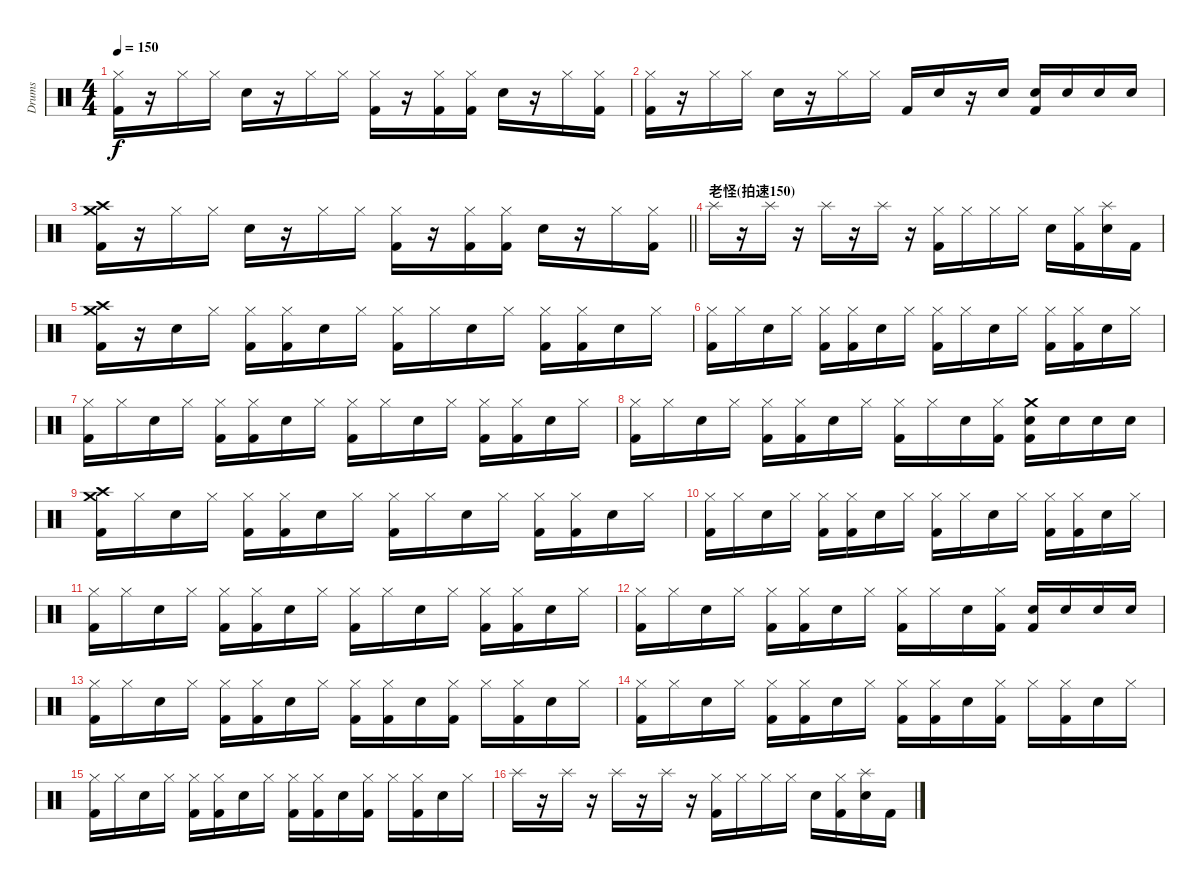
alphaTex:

\track ("Drums" "Drums") {instrument percussion}
\staff {score}
\articulation defaults
\ts (4 4)
\tempo 150
\clef neutral
\ks c
("Hi-Hat (closed)" "Kick (hit) 2").16{dy f} r.16 "Hi-Hat (closed)".16 "Hi-Hat (closed)".16 "Snare (hit) 2".16 r.16 "Hi-Hat (closed)".16 "Hi-Hat (closed)".16 ("Hi-Hat (closed)" "Kick (hit) 2").16 r.16 ("Hi-Hat (closed)" "Kick (hit) 2").16 ("Hi-Hat (closed)" "Kick (hit) 2").16 "Snare (hit) 2".16 r.16 "Hi-Hat (closed)".16 ("Hi-Hat (closed)" "Kick (hit) 2").16 |
("Hi-Hat (closed)" "Kick (hit) 2").16{volume 0} r.16 "Hi-Hat (closed)".16 "Hi-Hat (closed)".16 "Snare (hit) 2".16 r.16 "Hi-Hat (closed)".16 "Hi-Hat (closed)".16 "Kick (hit) 2".16 "Snare (hit) 2".16 r.16 "Snare (hit) 2".16 ("Snare (hit) 2" "Kick (hit) 2").16 "Snare (hit) 2".16 "Snare (hit) 2".16 "Snare (hit) 2".16 |
\barLineRight lightlight
("Crash medium (hit)" "Crash high (hit)" "Kick (hit) 2").16 r.16 "Hi-Hat (closed)".16 "Hi-Hat (closed)".16 "Snare (hit) 2".16 r.16 "Hi-Hat (closed)".16 "Hi-Hat (closed)".16 ("Hi-Hat (closed)" "Kick (hit) 2").16 r.16 ("Hi-Hat (closed)" "Kick (hit) 2").16 ("Hi-Hat (closed)" "Kick (hit) 2").16 "Snare (hit) 2".16 r.16 "Hi-Hat (closed)".16 ("Hi-Hat (closed)" "Kick (hit) 2").16 |
\section ("" "老怪(拍速150)")
"Splash (hit)".16{volume 13} r.16 "Splash (hit)".16 r.16 "Splash (hit)".16 r.16 "Splash (hit)".16 r.16 ("Hi-Hat (closed)" "Kick (hit) 2").16 "Hi-Hat (closed)".16 "Hi-Hat (closed)".16 "Hi-Hat (closed)".16 "Snare (hit) 2".16 ("Hi-Hat (closed)" "Kick (hit) 2").16 ("Splash (hit)" "Snare (hit) 2").16 "Kick (hit) 2".16 |
("Crash medium (hit)" "Crash high (hit)" "Kick (hit) 2").16 r.16 "Snare (hit) 2".16 "Hi-Hat (closed)".16 ("Hi-Hat (closed)" "Kick (hit) 2").16 ("Hi-Hat (closed)" "Kick (hit) 2").16 "Snare (hit) 2".16 "Hi-Hat (closed)".16 ("Hi-Hat (closed)" "Kick (hit) 2").16 "Hi-Hat (closed)".16 "Snare (hit) 2".16 "Hi-Hat (closed)".16 ("Hi-Hat (closed)" "Kick (hit) 2").16 ("Hi-Hat (closed)" "Kick (hit) 2").16 "Snare (hit) 2".16 "Hi-Hat (closed)".16 |
("Hi-Hat (closed)" "Kick (hit) 2").16 "Hi-Hat (closed)".16 "Snare (hit) 2".16 "Hi-Hat (closed)".16 ("Hi-Hat (closed)" "Kick (hit) 2").16 ("Hi-Hat (closed)" "Kick (hit) 2").16 "Snare (hit) 2".16 "Hi-Hat (closed)".16 ("Hi-Hat (closed)" "Kick (hit) 2").16 "Hi-Hat (closed)".16 "Snare (hit) 2".16 "Hi-Hat (closed)".16 ("Hi-Hat (closed)" "Kick (hit) 2").16 ("Hi-Hat (closed)" "Kick (hit) 2").16 "Snare (hit) 2".16 "Hi-Hat (closed)".16 |
("Hi-Hat (closed)" "Kick (hit) 2").16 "Hi-Hat (closed)".16 "Snare (hit) 2".16 "Hi-Hat (closed)".16 ("Hi-Hat (closed)" "Kick (hit) 2").16 ("Hi-Hat (closed)" "Kick (hit) 2").16 "Snare (hit) 2".16 "Hi-Hat (closed)".16 ("Hi-Hat (closed)" "Kick (hit) 2").16 "Hi-Hat (closed)".16 "Snare (hit) 2".16 "Hi-Hat (closed)".16 ("Hi-Hat (closed)" "Kick (hit) 2").16 ("Hi-Hat (closed)" "Kick (hit) 2").16 "Snare (hit) 2".16 "Hi-Hat (closed)".16 |
("Hi-Hat (closed)" "Kick (hit) 2").16 "Hi-Hat (closed)".16 "Snare (hit) 2".16 "Hi-Hat (closed)".16 ("Hi-Hat (closed)" "Kick (hit) 2").16 ("Hi-Hat (closed)" "Kick (hit) 2").16 "Snare (hit) 2".16 "Hi-Hat (closed)".16 ("Hi-Hat (closed)" "Kick (hit) 2").16 "Hi-Hat (closed)".16 "Snare (hit) 2".16 ("Hi-Hat (closed)" "Kick (hit) 2").16 ("Crash medium (hit)" "Snare (hit) 2" "Kick (hit) 2").16 "Snare (hit) 2".16 "Snare (hit) 2".16 "Snare (hit) 2".16 |
("Crash medium (hit)" "Crash high (hit)" "Kick (hit) 2").16 "Hi-Hat (closed)".16 "Snare (hit) 2".16 "Hi-Hat (closed)".16 ("Hi-Hat (closed)" "Kick (hit) 2").16 ("Hi-Hat (closed)" "Kick (hit) 2").16 "Snare (hit) 2".16 "Hi-Hat (closed)".16 ("Hi-Hat (closed)" "Kick (hit) 2").16 "Hi-Hat (closed)".16 "Snare (hit) 2".16 "Hi-Hat (closed)".16 ("Hi-Hat (closed)" "Kick (hit) 2").16 ("Hi-Hat (closed)" "Kick (hit) 2").16 "Snare (hit) 2".16 "Hi-Hat (closed)".16 |
("Hi-Hat (closed)" "Kick (hit) 2").16 "Hi-Hat (closed)".16 "Snare (hit) 2".16 "Hi-Hat (closed)".16 ("Hi-Hat (closed)" "Kick (hit) 2").16 ("Hi-Hat (closed)" "Kick (hit) 2").16 "Snare (hit) 2".16 "Hi-Hat (closed)".16 ("Hi-Hat (closed)" "Kick (hit) 2").16 "Hi-Hat (closed)".16 "Snare (hit) 2".16 "Hi-Hat (closed)".16 ("Hi-Hat (closed)" "Kick (hit) 2").16 ("Hi-Hat (closed)" "Kick (hit) 2").16 "Snare (hit) 2".16 "Hi-Hat (closed)".16 |
("Hi-Hat (closed)" "Kick (hit) 2").16 "Hi-Hat (closed)".16 "Snare (hit) 2".16 "Hi-Hat (closed)".16 ("Hi-Hat (closed)" "Kick (hit) 2").16 ("Hi-Hat (closed)" "Kick (hit) 2").16 "Snare (hit) 2".16 "Hi-Hat (closed)".16 ("Hi-Hat (closed)" "Kick (hit) 2").16 "Hi-Hat (closed)".16 "Snare (hit) 2".16 "Hi-Hat (closed)".16 ("Hi-Hat (closed)" "Kick (hit) 2").16 ("Hi-Hat (closed)" "Kick (hit) 2").16 "Snare (hit) 2".16 "Hi-Hat (closed)".16 |
("Hi-Hat (closed)" "Kick (hit) 2").16 "Hi-Hat (closed)".16 "Snare (hit) 2".16 "Hi-Hat (closed)".16 ("Hi-Hat (closed)" "Kick (hit) 2").16 ("Hi-Hat (closed)" "Kick (hit) 2").16 "Snare (hit) 2".16 "Hi-Hat (closed)".16 ("Hi-Hat (closed)" "Kick (hit) 2").16 "Hi-Hat (closed)".16 "Snare (hit) 2".16 ("Hi-Hat (closed)" "Kick (hit) 2").16 ("Snare (hit) 2" "Kick (hit) 2").16 "Snare (hit) 2".16 "Snare (hit) 2".16 "Snare (hit) 2".16 |
("Hi-Hat (closed)" "Kick (hit) 2").16 "Hi-Hat (closed)".16 "Snare (hit) 2".16 "Hi-Hat (closed)".16 ("Hi-Hat (closed)" "Kick (hit) 2").16 ("Hi-Hat (closed)" "Kick (hit) 2").16 "Snare (hit) 2".16 "Hi-Hat (closed)".16 ("Hi-Hat (closed)" "Kick (hit) 2").16 ("Hi-Hat (closed)" "Kick (hit) 2").16 "Snare (hit) 2".16 ("Hi-Hat (closed)" "Kick (hit) 2").16 "Hi-Hat (closed)".16 ("Hi-Hat (closed)" "Kick (hit) 2").16 "Snare (hit) 2".16 "Hi-Hat (closed)".16 |
("Hi-Hat (closed)" "Kick (hit) 2").16 "Hi-Hat (closed)".16 "Snare (hit) 2".16 "Hi-Hat (closed)".16 ("Hi-Hat (closed)" "Kick (hit) 2").16 ("Hi-Hat (closed)" "Kick (hit) 2").16 "Snare (hit) 2".16 "Hi-Hat (closed)".16 ("Hi-Hat (closed)" "Kick (hit) 2").16 ("Hi-Hat (closed)" "Kick (hit) 2").16 "Snare (hit) 2".16 ("Hi-Hat (closed)" "Kick (hit) 2").16 "Hi-Hat (closed)".16 ("Hi-Hat (closed)" "Kick (hit) 2").16 "Snare (hit) 2".16 "Hi-Hat (closed)".16 |
("Hi-Hat (closed)" "Kick (hit) 2").16 "Hi-Hat (closed)".16 "Snare (hit) 2".16 "Hi-Hat (closed)".16 ("Hi-Hat (closed)" "Kick (hit) 2").16 ("Hi-Hat (closed)" "Kick (hit) 2").16 "Snare (hit) 2".16 "Hi-Hat (closed)".16 ("Hi-Hat (closed)" "Kick (hit) 2").16 ("Hi-Hat (closed)" "Kick (hit) 2").16 "Snare (hit) 2".16 ("Hi-Hat (closed)" "Kick (hit) 2").16 "Hi-Hat (closed)".16 ("Hi-Hat (closed)" "Kick (hit) 2").16 "Snare (hit) 2".16 "Hi-Hat (closed)".16 |
"Splash (hit)".16 r.16 "Splash (hit)".16 r.16 "Splash (hit)".16 r.16 "Splash (hit)".16 r.16 ("Hi-Hat (closed)" "Kick (hit) 2").16 "Hi-Hat (closed)".16 "Hi-Hat (closed)".16 "Hi-Hat (closed)".16 "Snare (hit) 2".16 ("Hi-Hat (closed)" "Kick (hit) 2").16 ("Splash (hit)" "Snare (hit) 2").16 "Kick (hit) 2".16
